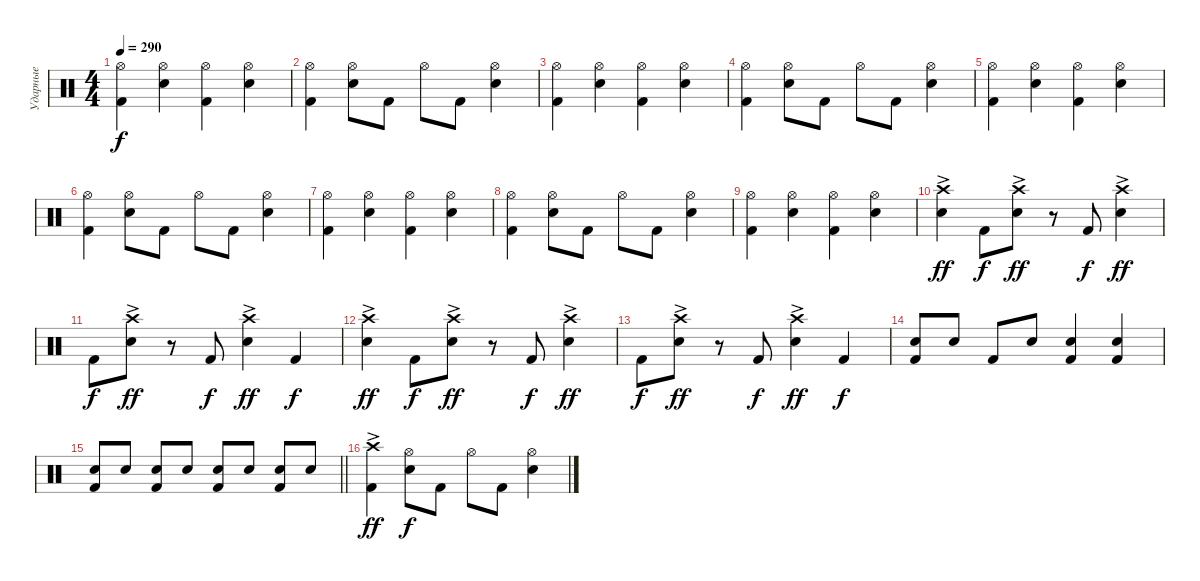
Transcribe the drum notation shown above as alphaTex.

\track ("Ударные" "Ударные") {instrument percussion}
\staff {score}
\articulation defaults
\ts (4 4)
\tempo 290
\clef neutral
\ks c
("Kick (hit) 2" "Hi-Hat (open)").4{dy f} ("Snare (hit) 2" "Hi-Hat (open)").4 ("Kick (hit) 2" "Hi-Hat (open)").4 ("Snare (hit) 2" "Hi-Hat (open)").4 |
("Kick (hit) 2" "Hi-Hat (open)").4 ("Snare (hit) 2" "Hi-Hat (open)").8 "Kick (hit) 2".8 "Hi-Hat (open)".8 "Kick (hit) 2".8 ("Snare (hit) 2" "Hi-Hat (open)").4 |
("Kick (hit) 2" "Hi-Hat (open)").4 ("Snare (hit) 2" "Hi-Hat (open)").4 ("Kick (hit) 2" "Hi-Hat (open)").4 ("Snare (hit) 2" "Hi-Hat (open)").4 |
("Kick (hit) 2" "Hi-Hat (open)").4 ("Snare (hit) 2" "Hi-Hat (open)").8 "Kick (hit) 2".8 "Hi-Hat (open)".8 "Kick (hit) 2".8 ("Snare (hit) 2" "Hi-Hat (open)").4 |
("Kick (hit) 2" "Hi-Hat (open)").4 ("Snare (hit) 2" "Hi-Hat (open)").4 ("Kick (hit) 2" "Hi-Hat (open)").4 ("Snare (hit) 2" "Hi-Hat (open)").4 |
("Kick (hit) 2" "Hi-Hat (open)").4 ("Snare (hit) 2" "Hi-Hat (open)").8 "Kick (hit) 2".8 "Hi-Hat (open)".8 "Kick (hit) 2".8 ("Snare (hit) 2" "Hi-Hat (open)").4 |
("Kick (hit) 2" "Hi-Hat (open)").4 ("Snare (hit) 2" "Hi-Hat (open)").4 ("Kick (hit) 2" "Hi-Hat (open)").4 ("Snare (hit) 2" "Hi-Hat (open)").4 |
("Kick (hit) 2" "Hi-Hat (open)").4 ("Snare (hit) 2" "Hi-Hat (open)").8 "Kick (hit) 2".8 "Hi-Hat (open)".8 "Kick (hit) 2".8 ("Snare (hit) 2" "Hi-Hat (open)").4 |
("Kick (hit) 2" "Hi-Hat (open)").4 ("Snare (hit) 2" "Hi-Hat (open)").4 ("Kick (hit) 2" "Hi-Hat (open)").4 ("Snare (hit) 2" "Hi-Hat (open)").4 |
("Snare (hit) 2" "Crash high (hit)"{ac}).4{dy ff} "Kick (hit) 2".8{dy f} ("Snare (hit) 2" "Crash high (hit)"{ac}).8{dy ff} r.8 "Kick (hit) 2".8{dy f} ("Snare (hit) 2" "Crash high (hit)"{ac}).4{dy ff} |
"Kick (hit) 2".8{dy f} ("Snare (hit) 2" "Crash high (hit)"{ac}).8{dy ff} r.8 "Kick (hit) 2".8{dy f} ("Snare (hit) 2" "Crash high (hit)"{ac}).4{dy ff} "Kick (hit) 2".4{dy f} |
("Snare (hit) 2" "Crash high (hit)"{ac}).4{dy ff} "Kick (hit) 2".8{dy f} ("Snare (hit) 2" "Crash high (hit)"{ac}).8{dy ff} r.8 "Kick (hit) 2".8{dy f} ("Snare (hit) 2" "Crash high (hit)"{ac}).4{dy ff} |
"Kick (hit) 2".8{dy f} ("Snare (hit) 2" "Crash high (hit)"{ac}).8{dy ff} r.8 "Kick (hit) 2".8{dy f} ("Snare (hit) 2" "Crash high (hit)"{ac}).4{dy ff} "Kick (hit) 2".4{dy f} |
("Kick (hit) 2" "Snare (hit) 2").8 "Snare (hit) 2".8 "Kick (hit) 2".8 "Snare (hit) 2".8 ("Kick (hit) 2" "Snare (hit) 2").4 ("Kick (hit) 2" "Snare (hit) 2").4 |
\barLineRight lightlight
("Kick (hit) 2" "Snare (hit) 2").8 "Snare (hit) 2".8 ("Kick (hit) 2" "Snare (hit) 2").8 "Snare (hit) 2".8 ("Kick (hit) 2" "Snare (hit) 2").8 "Snare (hit) 2".8 ("Kick (hit) 2" "Snare (hit) 2").8 "Snare (hit) 2".8 |
("Kick (hit) 2" "Crash high (hit)"{ac}).4{dy ff} ("Snare (hit) 2" "Hi-Hat (open)").8{dy f} "Kick (hit) 2".8 "Hi-Hat (open)".8 "Kick (hit) 2".8 ("Snare (hit) 2" "Hi-Hat (open)").4
